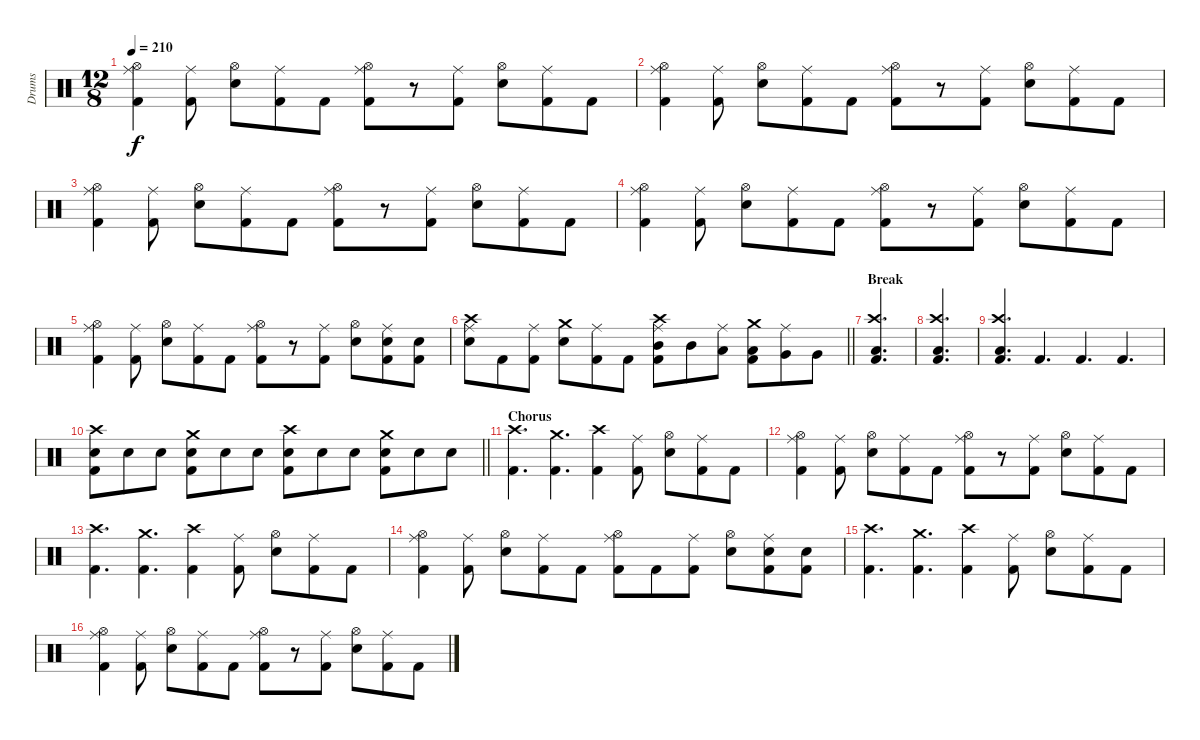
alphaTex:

\track ("Drums" "Drums") {instrument percussion}
\staff {score}
\articulation defaults
\ts (12 8)
\tempo 210
\clef neutral
\ks c
("Ride (middle)" "Hi-Hat (open)" "Kick (hit) 2").4{dy f} ("Ride (middle)" "Kick (hit) 2").8 ("Hi-Hat (open)" "Snare (hit) 2").8 ("Ride (middle)" "Kick (hit) 2").8 "Kick (hit) 2".8 ("Ride (middle)" "Hi-Hat (open)" "Kick (hit) 2").8 r.8 ("Ride (middle)" "Kick (hit) 2").8 ("Hi-Hat (open)" "Snare (hit) 2").8 ("Ride (middle)" "Kick (hit) 2").8 "Kick (hit) 2".8 |
("Ride (middle)" "Hi-Hat (open)" "Kick (hit) 2").4 ("Ride (middle)" "Kick (hit) 2").8 ("Hi-Hat (open)" "Snare (hit) 2").8 ("Ride (middle)" "Kick (hit) 2").8 "Kick (hit) 2".8 ("Ride (middle)" "Hi-Hat (open)" "Kick (hit) 2").8 r.8 ("Ride (middle)" "Kick (hit) 2").8 ("Hi-Hat (open)" "Snare (hit) 2").8 ("Ride (middle)" "Kick (hit) 2").8 "Kick (hit) 2".8 |
("Ride (middle)" "Hi-Hat (open)" "Kick (hit) 2").4 ("Ride (middle)" "Kick (hit) 2").8 ("Hi-Hat (open)" "Snare (hit) 2").8 ("Ride (middle)" "Kick (hit) 2").8 "Kick (hit) 2".8 ("Ride (middle)" "Hi-Hat (open)" "Kick (hit) 2").8 r.8 ("Ride (middle)" "Kick (hit) 2").8 ("Hi-Hat (open)" "Snare (hit) 2").8 ("Ride (middle)" "Kick (hit) 2").8 "Kick (hit) 2".8 |
("Ride (middle)" "Hi-Hat (open)" "Kick (hit) 2").4 ("Ride (middle)" "Kick (hit) 2").8 ("Hi-Hat (open)" "Snare (hit) 2").8 ("Ride (middle)" "Kick (hit) 2").8 "Kick (hit) 2".8 ("Ride (middle)" "Hi-Hat (open)" "Kick (hit) 2").8 r.8 ("Ride (middle)" "Kick (hit) 2").8 ("Hi-Hat (open)" "Snare (hit) 2").8 ("Ride (middle)" "Kick (hit) 2").8 "Kick (hit) 2".8 |
("Ride (middle)" "Hi-Hat (open)" "Kick (hit) 2").4 ("Ride (middle)" "Kick (hit) 2").8 ("Hi-Hat (open)" "Snare (hit) 2").8 ("Ride (middle)" "Kick (hit) 2").8 "Kick (hit) 2".8 ("Ride (middle)" "Hi-Hat (open)" "Kick (hit) 2").8 r.8 ("Ride (middle)" "Kick (hit) 2").8 ("Hi-Hat (open)" "Snare (hit) 2").8 ("Ride (middle)" "Snare (hit) 2" "Kick (hit) 2").8 ("Snare (hit) 2" "Kick (hit) 2").8 |
\barLineRight lightlight
("Crash high (hit)" "Ride (middle)" "Snare (hit) 2").8 "Kick (hit) 2".8 ("Ride (middle)" "Kick (hit) 2").8 ("Crash medium (hit)" "Snare (hit) 2").8 ("Ride (middle)" "Kick (hit) 2").8 "Kick (hit) 2".8 ("Crash high (hit)" "Ride (middle)" "Mid Tom (hit)" "Kick (hit) 2").8 "Mid Tom (hit)".8 ("Ride (middle)" "Low Tom (hit)").8 ("Crash medium (hit)" "Low Tom (hit)" "Kick (hit) 2").8 ("Ride (middle)" "Very Low Tom (hit)").8 "Very Low Tom (hit)".8 |
\section ("" "Break")
("Crash high (hit)" "Low Floor Tom (hit)" "Kick (hit) 2").4{d} |
("Crash high (hit)" "Low Floor Tom (hit)" "Kick (hit) 2").4{d} |
("Crash high (hit)" "Low Floor Tom (hit)" "Kick (hit) 2").4{d} "Kick (hit) 2".4{d} "Kick (hit) 2".4{d} "Kick (hit) 2".4{d} |
\barLineRight lightlight
("Crash high (hit)" "Snare (hit) 2" "Kick (hit) 2").8 "Snare (hit) 2".8 "Snare (hit) 2".8 ("Crash medium (hit)" "Snare (hit) 2" "Kick (hit) 2").8 "Snare (hit) 2".8 "Snare (hit) 2".8 ("Crash high (hit)" "Snare (hit) 2" "Kick (hit) 2").8 "Snare (hit) 2".8 "Snare (hit) 2".8 ("Crash medium (hit)" "Snare (hit) 2" "Kick (hit) 2").8 "Snare (hit) 2".8 "Snare (hit) 2".8 |
\section ("" "Chorus")
("Crash high (hit)" "Kick (hit) 2").4{d} ("Crash medium (hit)" "Kick (hit) 2").4{d} ("Crash high (hit)" "Kick (hit) 2").4 ("Ride (middle)" "Kick (hit) 2").8 ("Hi-Hat (open)" "Snare (hit) 2").8 ("Ride (middle)" "Kick (hit) 2").8 "Kick (hit) 2".8 |
("Ride (middle)" "Hi-Hat (open)" "Kick (hit) 2").4 ("Ride (middle)" "Kick (hit) 2").8 ("Hi-Hat (open)" "Snare (hit) 2").8 ("Ride (middle)" "Kick (hit) 2").8 "Kick (hit) 2".8 ("Ride (middle)" "Hi-Hat (open)" "Kick (hit) 2").8 r.8 ("Ride (middle)" "Kick (hit) 2").8 ("Hi-Hat (open)" "Snare (hit) 2").8 ("Ride (middle)" "Kick (hit) 2").8 "Kick (hit) 2".8 |
("Crash high (hit)" "Kick (hit) 2").4{d} ("Crash medium (hit)" "Kick (hit) 2").4{d} ("Crash high (hit)" "Kick (hit) 2").4 ("Ride (middle)" "Kick (hit) 2").8 ("Hi-Hat (open)" "Snare (hit) 2").8 ("Ride (middle)" "Kick (hit) 2").8 "Kick (hit) 2".8 |
("Ride (middle)" "Hi-Hat (open)" "Kick (hit) 2").4 ("Ride (middle)" "Kick (hit) 2").8 ("Hi-Hat (open)" "Snare (hit) 2").8 ("Ride (middle)" "Kick (hit) 2").8 "Kick (hit) 2".8 ("Ride (middle)" "Hi-Hat (open)" "Kick (hit) 2").8 "Kick (hit) 2".8 ("Ride (middle)" "Kick (hit) 2").8 ("Hi-Hat (open)" "Snare (hit) 2").8 ("Ride (middle)" "Snare (hit) 2" "Kick (hit) 2").8 ("Snare (hit) 2" "Kick (hit) 2").8 |
("Crash high (hit)" "Kick (hit) 2").4{d} ("Crash medium (hit)" "Kick (hit) 2").4{d} ("Crash high (hit)" "Kick (hit) 2").4 ("Ride (middle)" "Kick (hit) 2").8 ("Hi-Hat (open)" "Snare (hit) 2").8 ("Ride (middle)" "Kick (hit) 2").8 "Kick (hit) 2".8 |
("Ride (middle)" "Hi-Hat (open)" "Kick (hit) 2").4 ("Ride (middle)" "Kick (hit) 2").8 ("Hi-Hat (open)" "Snare (hit) 2").8 ("Ride (middle)" "Kick (hit) 2").8 "Kick (hit) 2".8 ("Ride (middle)" "Hi-Hat (open)" "Kick (hit) 2").8 r.8 ("Ride (middle)" "Kick (hit) 2").8 ("Hi-Hat (open)" "Snare (hit) 2").8 ("Ride (middle)" "Kick (hit) 2").8 "Kick (hit) 2".8
